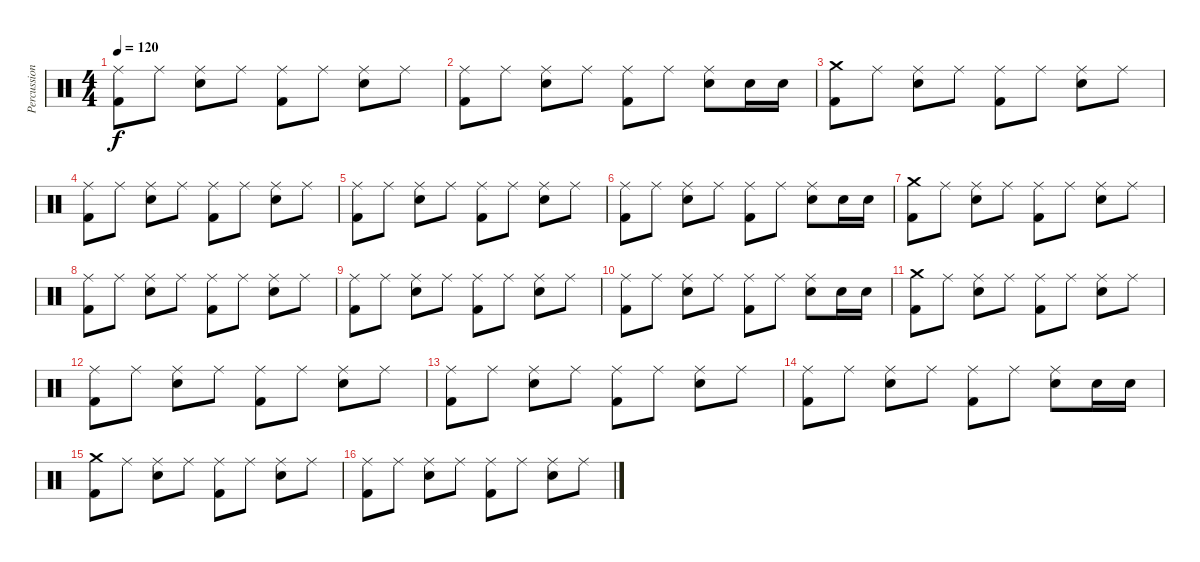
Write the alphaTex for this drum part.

\track ("Percussions" "Percussion") {instrument percussion}
\staff {score}
\articulation defaults
\ts (4 4)
\tempo 120
\clef neutral
\ks c
("Ride (middle)" "Kick (hit) 2").8{dy f} "Ride (middle)".8 ("Ride (middle)" "Electric Snare (hit)").8 "Ride (middle)".8 ("Ride (middle)" "Kick (hit) 2").8 "Ride (middle)".8 ("Ride (middle)" "Electric Snare (hit)").8 "Ride (middle)".8 |
("Ride (middle)" "Kick (hit) 2").8 "Ride (middle)".8 ("Ride (middle)" "Electric Snare (hit)").8 "Ride (middle)".8 ("Ride (middle)" "Kick (hit) 2").8 "Ride (middle)".8 ("Ride (middle)" "Electric Snare (hit)").8 "Electric Snare (hit)".16 "Electric Snare (hit)".16 |
("Crash medium (hit)" "Kick (hit) 2").8 "Ride (middle)".8 ("Ride (middle)" "Electric Snare (hit)").8 "Ride (middle)".8 ("Ride (middle)" "Kick (hit) 2").8 "Ride (middle)".8 ("Ride (middle)" "Electric Snare (hit)").8 "Ride (middle)".8 |
("Ride (middle)" "Kick (hit) 2").8 "Ride (middle)".8 ("Ride (middle)" "Electric Snare (hit)").8 "Ride (middle)".8 ("Ride (middle)" "Kick (hit) 2").8 "Ride (middle)".8 ("Ride (middle)" "Electric Snare (hit)").8 "Ride (middle)".8 |
("Ride (middle)" "Kick (hit) 2").8 "Ride (middle)".8 ("Ride (middle)" "Electric Snare (hit)").8 "Ride (middle)".8 ("Ride (middle)" "Kick (hit) 2").8 "Ride (middle)".8 ("Ride (middle)" "Electric Snare (hit)").8 "Ride (middle)".8 |
("Ride (middle)" "Kick (hit) 2").8 "Ride (middle)".8 ("Ride (middle)" "Electric Snare (hit)").8 "Ride (middle)".8 ("Ride (middle)" "Kick (hit) 2").8 "Ride (middle)".8 ("Ride (middle)" "Electric Snare (hit)").8 "Electric Snare (hit)".16 "Electric Snare (hit)".16 |
("Crash medium (hit)" "Kick (hit) 2").8 "Ride (middle)".8 ("Ride (middle)" "Electric Snare (hit)").8 "Ride (middle)".8 ("Ride (middle)" "Kick (hit) 2").8 "Ride (middle)".8 ("Ride (middle)" "Electric Snare (hit)").8 "Ride (middle)".8 |
("Ride (middle)" "Kick (hit) 2").8 "Ride (middle)".8 ("Ride (middle)" "Electric Snare (hit)").8 "Ride (middle)".8 ("Ride (middle)" "Kick (hit) 2").8 "Ride (middle)".8 ("Ride (middle)" "Electric Snare (hit)").8 "Ride (middle)".8 |
("Ride (middle)" "Kick (hit) 2").8 "Ride (middle)".8 ("Ride (middle)" "Electric Snare (hit)").8 "Ride (middle)".8 ("Ride (middle)" "Kick (hit) 2").8 "Ride (middle)".8 ("Ride (middle)" "Electric Snare (hit)").8 "Ride (middle)".8 |
("Ride (middle)" "Kick (hit) 2").8 "Ride (middle)".8 ("Ride (middle)" "Electric Snare (hit)").8 "Ride (middle)".8 ("Ride (middle)" "Kick (hit) 2").8 "Ride (middle)".8 ("Ride (middle)" "Electric Snare (hit)").8 "Electric Snare (hit)".16 "Electric Snare (hit)".16 |
("Crash medium (hit)" "Kick (hit) 2").8 "Ride (middle)".8 ("Ride (middle)" "Electric Snare (hit)").8 "Ride (middle)".8 ("Ride (middle)" "Kick (hit) 2").8 "Ride (middle)".8 ("Ride (middle)" "Electric Snare (hit)").8 "Ride (middle)".8 |
("Ride (middle)" "Kick (hit) 2").8 "Ride (middle)".8 ("Ride (middle)" "Electric Snare (hit)").8 "Ride (middle)".8 ("Ride (middle)" "Kick (hit) 2").8 "Ride (middle)".8 ("Ride (middle)" "Electric Snare (hit)").8 "Ride (middle)".8 |
("Ride (middle)" "Kick (hit) 2").8 "Ride (middle)".8 ("Ride (middle)" "Electric Snare (hit)").8 "Ride (middle)".8 ("Ride (middle)" "Kick (hit) 2").8 "Ride (middle)".8 ("Ride (middle)" "Electric Snare (hit)").8 "Ride (middle)".8 |
("Ride (middle)" "Kick (hit) 2").8 "Ride (middle)".8 ("Ride (middle)" "Electric Snare (hit)").8 "Ride (middle)".8 ("Ride (middle)" "Kick (hit) 2").8 "Ride (middle)".8 ("Ride (middle)" "Electric Snare (hit)").8 "Electric Snare (hit)".16 "Electric Snare (hit)".16 |
("Crash medium (hit)" "Kick (hit) 2").8 "Ride (middle)".8 ("Ride (middle)" "Electric Snare (hit)").8 "Ride (middle)".8 ("Ride (middle)" "Kick (hit) 2").8 "Ride (middle)".8 ("Ride (middle)" "Electric Snare (hit)").8 "Ride (middle)".8 |
("Ride (middle)" "Kick (hit) 2").8 "Ride (middle)".8 ("Ride (middle)" "Electric Snare (hit)").8 "Ride (middle)".8 ("Ride (middle)" "Kick (hit) 2").8 "Ride (middle)".8 ("Ride (middle)" "Electric Snare (hit)").8 "Ride (middle)".8
